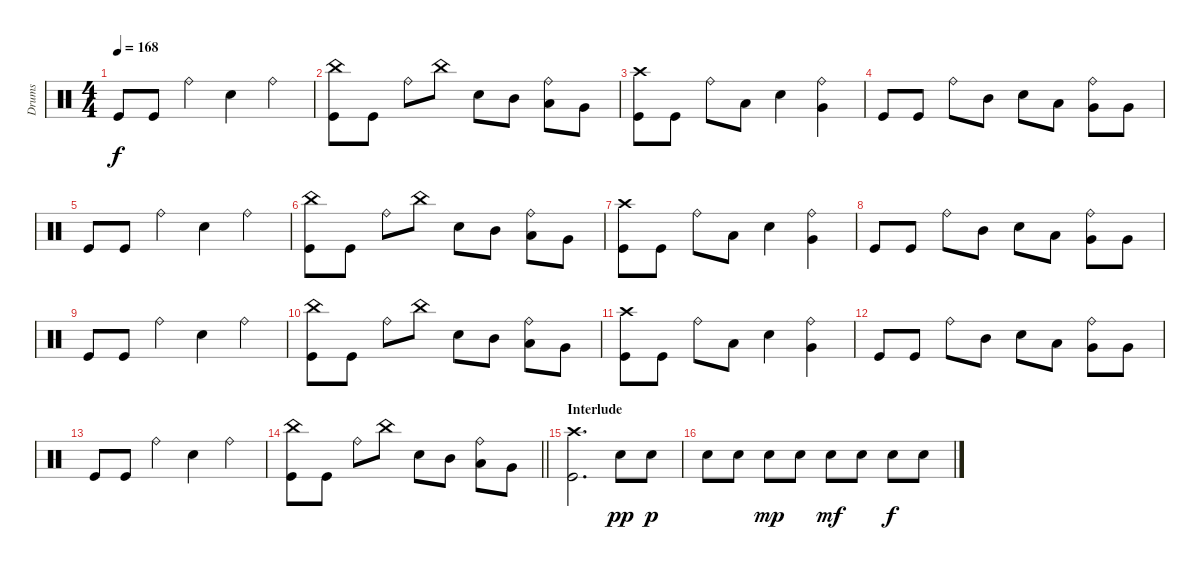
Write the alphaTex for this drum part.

\track ("Drums" "Drums") {instrument percussion}
\staff {score}
\articulation defaults
\ts (4 4)
\tempo 168
\clef neutral
\ks c "Kick (hit)".8{dy f} "Kick (hit)".8 "Ride (bell)".4 "Electric Snare (hit)".4 "Ride (bell)".4
|
("China (hit)" "Kick (hit)").8 "Kick (hit)".8 "Ride (bell)".8 "China (hit)".8 "Electric Snare (hit)".8 "Mid Tom (hit)".8 ("Ride (bell)" "Low Tom (hit)").8 "Very Low Tom (hit)".8 |
("Crash high (hit)" "Kick (hit)").8 "Kick (hit)".8 "Ride (bell)".8 "Low Tom (hit)".8 "Electric Snare (hit)".4 ("Ride (bell)" "Very Low Tom (hit)").4 |
"Kick (hit)".8 "Kick (hit)".8 "Ride (bell)".8 "Mid Tom (hit)".8 "Electric Snare (hit)".8 "Low Tom (hit)".8 ("Ride (bell)" "Very Low Tom (hit)").8 "Very Low Tom (hit)".8 |
"Kick (hit)".8 "Kick (hit)".8 "Ride (bell)".4 "Electric Snare (hit)".4 "Ride (bell)".4 |
("China (hit)" "Kick (hit)").8 "Kick (hit)".8 "Ride (bell)".8 "China (hit)".8 "Electric Snare (hit)".8 "Mid Tom (hit)".8 ("Ride (bell)" "Low Tom (hit)").8 "Very Low Tom (hit)".8 |
("Crash high (hit)" "Kick (hit)").8 "Kick (hit)".8 "Ride (bell)".8 "Low Tom (hit)".8 "Electric Snare (hit)".4 ("Ride (bell)" "Very Low Tom (hit)").4 |
"Kick (hit)".8 "Kick (hit)".8 "Ride (bell)".8 "Mid Tom (hit)".8 "Electric Snare (hit)".8 "Low Tom (hit)".8 ("Ride (bell)" "Very Low Tom (hit)").8 "Very Low Tom (hit)".8 |
"Kick (hit)".8 "Kick (hit)".8 "Ride (bell)".4 "Electric Snare (hit)".4 "Ride (bell)".4 |
("China (hit)" "Kick (hit)").8 "Kick (hit)".8 "Ride (bell)".8 "China (hit)".8 "Electric Snare (hit)".8 "Mid Tom (hit)".8 ("Ride (bell)" "Low Tom (hit)").8 "Very Low Tom (hit)".8 |
("Crash high (hit)" "Kick (hit)").8 "Kick (hit)".8 "Ride (bell)".8 "Low Tom (hit)".8 "Electric Snare (hit)".4 ("Ride (bell)" "Very Low Tom (hit)").4 |
"Kick (hit)".8 "Kick (hit)".8 "Ride (bell)".8 "Mid Tom (hit)".8 "Electric Snare (hit)".8 "Low Tom (hit)".8 ("Ride (bell)" "Very Low Tom (hit)").8 "Very Low Tom (hit)".8 |
"Kick (hit)".8 "Kick (hit)".8 "Ride (bell)".4 "Electric Snare (hit)".4 "Ride (bell)".4 |
\barLineRight lightlight
("China (hit)" "Kick (hit)").8 "Kick (hit)".8 "Ride (bell)".8 "China (hit)".8 "Electric Snare (hit)".8 "Mid Tom (hit)".8 ("Ride (bell)" "Low Tom (hit)").8 "Very Low Tom (hit)".8 |
\section ("" "Interlude")
("Crash high (hit)" "Kick (hit)").2{d} "Electric Snare (hit)".8{dy pp} "Electric Snare (hit)".8{dy p} |
"Electric Snare (hit)".8 "Electric Snare (hit)".8 "Electric Snare (hit)".8{dy mp} "Electric Snare (hit)".8 "Electric Snare (hit)".8{dy mf} "Electric Snare (hit)".8 "Electric Snare (hit)".8{dy f} "Electric Snare (hit)".8
